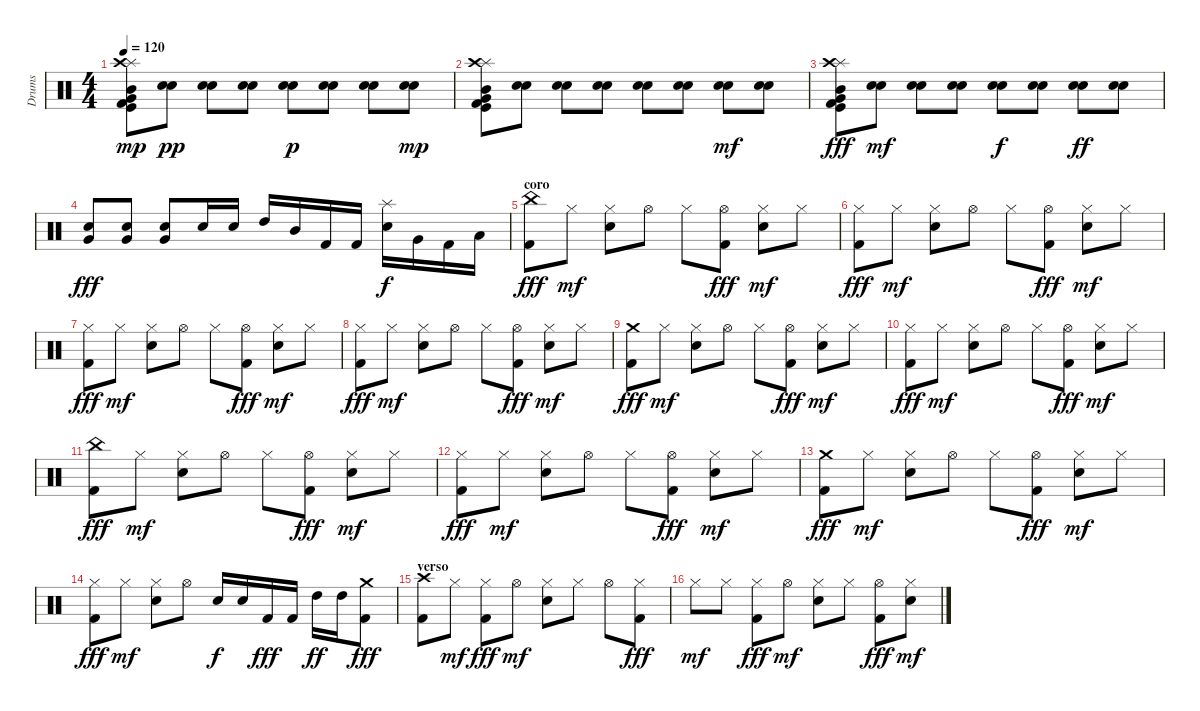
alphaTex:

\track ("Drums" "Drums") {instrument percussion}
\staff {score}
\articulation defaults
\ts (4 4)
\tempo 120
\clef neutral
\ks c
("Kick (hit) 2" "Kick (hit)" "Mid Tom (hit)" "Very Low Tom (hit)" "Splash (hit)" "Crash high (hit)").8{dy mp} ("Electric Snare (hit)" "Snare (hit) 2").8{dy pp} ("Electric Snare (hit)" "Snare (hit) 2").8 ("Electric Snare (hit)" "Snare (hit) 2").8 ("Electric Snare (hit)" "Snare (hit) 2").8{dy p} ("Electric Snare (hit)" "Snare (hit) 2").8 ("Electric Snare (hit)" "Snare (hit) 2").8 ("Electric Snare (hit)" "Snare (hit) 2").8{dy mp} |
("Kick (hit) 2" "Kick (hit)" "Mid Tom (hit)" "Very Low Tom (hit)" "Splash (hit)" "Crash high (hit)").8 ("Electric Snare (hit)" "Snare (hit) 2").8 ("Electric Snare (hit)" "Snare (hit) 2").8 ("Electric Snare (hit)" "Snare (hit) 2").8 ("Electric Snare (hit)" "Snare (hit) 2").8 ("Electric Snare (hit)" "Snare (hit) 2").8 ("Electric Snare (hit)" "Snare (hit) 2").8{dy mf} ("Electric Snare (hit)" "Snare (hit) 2").8 |
("Kick (hit) 2" "Kick (hit)" "Mid Tom (hit)" "Very Low Tom (hit)" "Splash (hit)" "Crash high (hit)").8{dy fff} ("Electric Snare (hit)" "Snare (hit) 2").8{dy mf} ("Electric Snare (hit)" "Snare (hit) 2").8 ("Electric Snare (hit)" "Snare (hit) 2").8 ("Electric Snare (hit)" "Snare (hit) 2").8{dy f} ("Electric Snare (hit)" "Snare (hit) 2").8 ("Electric Snare (hit)" "Snare (hit) 2").8{dy ff} ("Electric Snare (hit)" "Snare (hit) 2").8 |
("Electric Snare (hit)" "Very Low Tom (hit)").8{dy fff} ("Electric Snare (hit)" "Very Low Tom (hit)").8 ("Electric Snare (hit)" "Very Low Tom (hit)").8 "Electric Snare (hit)".16 "Electric Snare (hit)".16 "High Tom (hit)".16 "Mid Tom (hit)".16 "Kick (hit) 2".16 "Kick (hit) 2".16 ("Splash (hit)" "Electric Snare (hit)").16{dy f} "Very Low Tom (hit)".16 "Kick (hit) 2".16 "Low Floor Tom (hit)".16 |
\section ("" "coro")
("China (hit)" "Kick (hit) 2").8{dy fff} "Hi-Hat (closed)".8{dy mf} ("Hi-Hat (closed)" "Electric Snare (hit)").8 "Hi-Hat (open)".8 "Hi-Hat (closed)".8 ("Hi-Hat (open)" "Kick (hit) 2").8{dy fff} ("Hi-Hat (closed)" "Electric Snare (hit)").8{dy mf} "Hi-Hat (closed)".8 |
("Hi-Hat (closed)" "Kick (hit) 2").8{dy fff} "Hi-Hat (closed)".8{dy mf} ("Hi-Hat (closed)" "Electric Snare (hit)").8 "Hi-Hat (open)".8 "Hi-Hat (closed)".8 ("Hi-Hat (open)" "Kick (hit) 2").8{dy fff} ("Hi-Hat (closed)" "Electric Snare (hit)").8{dy mf} "Hi-Hat (closed)".8 |
("Hi-Hat (closed)" "Kick (hit) 2").8{dy fff} "Hi-Hat (closed)".8{dy mf} ("Hi-Hat (closed)" "Electric Snare (hit)").8 "Hi-Hat (open)".8 "Hi-Hat (closed)".8 ("Hi-Hat (open)" "Kick (hit) 2").8{dy fff} ("Hi-Hat (closed)" "Electric Snare (hit)").8{dy mf} "Hi-Hat (closed)".8 |
("Hi-Hat (closed)" "Kick (hit) 2").8{dy fff} "Hi-Hat (closed)".8{dy mf} ("Hi-Hat (closed)" "Electric Snare (hit)").8 "Hi-Hat (open)".8 "Hi-Hat (closed)".8 ("Hi-Hat (open)" "Kick (hit) 2").8{dy fff} ("Hi-Hat (closed)" "Electric Snare (hit)").8{dy mf} "Hi-Hat (closed)".8 |
("Crash medium (hit)" "Kick (hit) 2").8{dy fff} "Hi-Hat (closed)".8{dy mf} ("Hi-Hat (closed)" "Electric Snare (hit)").8 "Hi-Hat (open)".8 "Hi-Hat (closed)".8 ("Hi-Hat (open)" "Kick (hit) 2").8{dy fff} ("Hi-Hat (closed)" "Electric Snare (hit)").8{dy mf} "Hi-Hat (closed)".8 |
("Hi-Hat (closed)" "Kick (hit) 2").8{dy fff} "Hi-Hat (closed)".8{dy mf} ("Hi-Hat (closed)" "Electric Snare (hit)").8 "Hi-Hat (open)".8 "Hi-Hat (closed)".8 ("Hi-Hat (open)" "Kick (hit) 2").8{dy fff} ("Hi-Hat (closed)" "Electric Snare (hit)").8{dy mf} "Hi-Hat (closed)".8 |
("China (hit)" "Kick (hit) 2").8{dy fff} "Hi-Hat (closed)".8{dy mf} ("Hi-Hat (closed)" "Electric Snare (hit)").8 "Hi-Hat (open)".8 "Hi-Hat (closed)".8 ("Hi-Hat (open)" "Kick (hit) 2").8{dy fff} ("Hi-Hat (closed)" "Electric Snare (hit)").8{dy mf} "Hi-Hat (closed)".8 |
("Hi-Hat (closed)" "Kick (hit) 2").8{dy fff} "Hi-Hat (closed)".8{dy mf} ("Hi-Hat (closed)" "Electric Snare (hit)").8 "Hi-Hat (open)".8 "Hi-Hat (closed)".8 ("Hi-Hat (open)" "Kick (hit) 2").8{dy fff} ("Hi-Hat (closed)" "Electric Snare (hit)").8{dy mf} "Hi-Hat (closed)".8 |
("Crash medium (hit)" "Kick (hit) 2").8{dy fff} "Hi-Hat (closed)".8{dy mf} ("Hi-Hat (closed)" "Electric Snare (hit)").8 "Hi-Hat (open)".8 "Hi-Hat (closed)".8 ("Hi-Hat (open)" "Kick (hit) 2").8{dy fff} ("Hi-Hat (closed)" "Electric Snare (hit)").8{dy mf} "Hi-Hat (closed)".8 |
("Hi-Hat (closed)" "Kick (hit) 2").8{dy fff} "Hi-Hat (closed)".8{dy mf} ("Hi-Hat (closed)" "Electric Snare (hit)").8 "Hi-Hat (open)".8 "Electric Snare (hit)".16{dy f} "Electric Snare (hit)".16 "Kick (hit) 2".16{dy fff} "Kick (hit) 2".16 "High Tom (hit)".16{dy ff} "High Tom (hit)".16 ("Crash medium (hit)" "Kick (hit) 2").8{dy fff} |
\section ("" "verso")
("Crash high (hit)" "Kick (hit) 2").8 "Hi-Hat (closed)".8{dy mf} ("Hi-Hat (closed)" "Kick (hit) 2").8{dy fff} "Hi-Hat (open)".8{dy mf} ("Hi-Hat (closed)" "Electric Snare (hit)").8 "Hi-Hat (closed)".8 "Hi-Hat (open)".8 ("Hi-Hat (closed)" "Kick (hit) 2").8{dy fff} |
"Hi-Hat (closed)".8{dy mf} "Hi-Hat (closed)".8 ("Hi-Hat (closed)" "Kick (hit) 2").8{dy fff} "Hi-Hat (open)".8{dy mf} ("Hi-Hat (closed)" "Electric Snare (hit)").8 "Hi-Hat (closed)".8 ("Hi-Hat (open)" "Kick (hit) 2").8{dy fff} ("Hi-Hat (closed)" "Electric Snare (hit)").8{dy mf}
